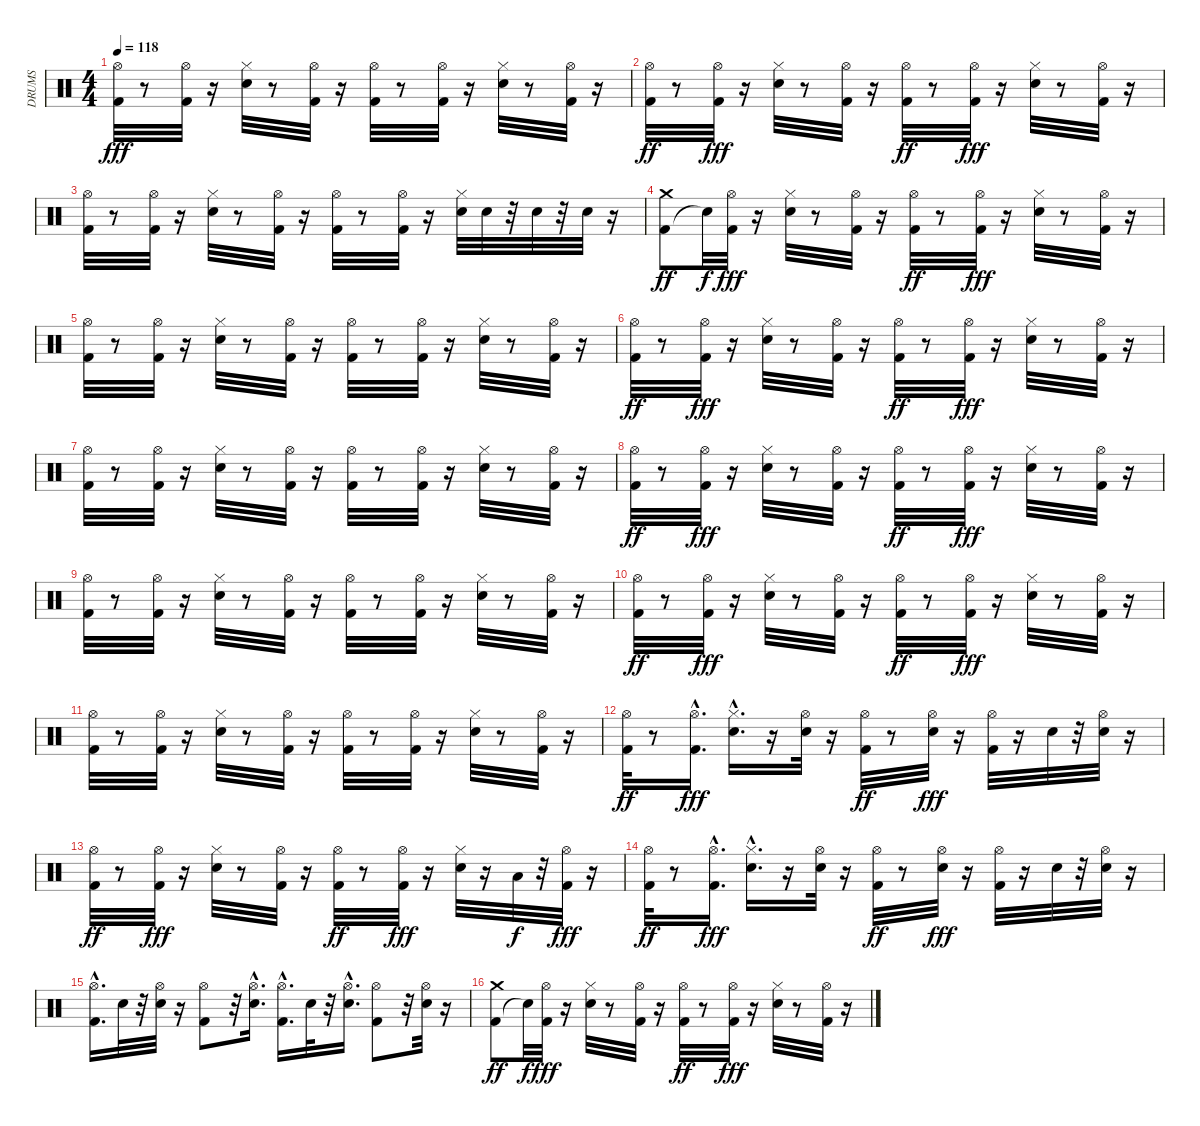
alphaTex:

\track ("DRUMS" "DRUMS") {instrument percussion}
\staff {score}
\articulation defaults
\ts (4 4)
\tempo 118
\clef neutral
\ks c
("Hi-Hat (open)" "Kick (hit) 2").32{dy fff} r.8 ("Hi-Hat (open)" "Kick (hit) 2").32 r.16 ("Snare (hit) 2" "Hi-Hat (closed)").32 r.8 ("Hi-Hat (open)" "Kick (hit) 2").32 r.16 ("Hi-Hat (open)" "Kick (hit) 2").32 r.8 ("Hi-Hat (open)" "Kick (hit) 2").32 r.16 ("Hi-Hat (closed)" "Snare (hit) 2").32 r.8 ("Hi-Hat (open)" "Kick (hit) 2").32 r.16 |
("Kick (hit) 2" "Hi-Hat (open)").32{dy ff} r.8 ("Hi-Hat (open)" "Kick (hit) 2").32{dy fff} r.16 ("Hi-Hat (closed)" "Snare (hit) 2").32 r.8 ("Kick (hit) 2" "Hi-Hat (open)").32 r.16 ("Kick (hit) 2" "Hi-Hat (open)").32{dy ff} r.8 ("Hi-Hat (open)" "Kick (hit) 2").32{dy fff} r.16 ("Snare (hit) 2" "Hi-Hat (closed)").32 r.8 ("Hi-Hat (open)" "Kick (hit) 2").32 r.16 |
("Hi-Hat (open)" "Kick (hit) 2").32 r.8 ("Hi-Hat (open)" "Kick (hit) 2").32 r.16 ("Hi-Hat (closed)" "Snare (hit) 2").32 r.8 ("Hi-Hat (open)" "Kick (hit) 2").32 r.16 ("Hi-Hat (open)" "Kick (hit) 2").32 r.8 ("Hi-Hat (open)" "Kick (hit) 2").32 r.16 ("Hi-Hat (closed)" "Snare (hit) 2").32 "Snare (hit) 2".32 r.32 "Snare (hit) 2".32 r.32 "Snare (hit) 2".32 r.16 |
("Kick (hit) 2" "Crash medium (hit)").8{dy ff} "Snare (hit)"{t}.32{dy f} ("Hi-Hat (open)" "Kick (hit) 2").32{dy fff} r.16 ("Hi-Hat (closed)" "Snare (hit) 2").32 r.8 ("Kick (hit) 2" "Hi-Hat (open)").32 r.16 ("Kick (hit) 2" "Hi-Hat (open)").32{dy ff} r.8 ("Hi-Hat (open)" "Kick (hit) 2").32{dy fff} r.16 ("Snare (hit) 2" "Hi-Hat (closed)").32 r.8 ("Hi-Hat (open)" "Kick (hit) 2").32 r.16 |
("Hi-Hat (open)" "Kick (hit) 2").32 r.8 ("Hi-Hat (open)" "Kick (hit) 2").32 r.16 ("Hi-Hat (closed)" "Snare (hit) 2").32 r.8 ("Hi-Hat (open)" "Kick (hit) 2").32 r.16 ("Hi-Hat (open)" "Kick (hit) 2").32 r.8 ("Hi-Hat (open)" "Kick (hit) 2").32 r.16 ("Hi-Hat (closed)" "Snare (hit) 2").32 r.8 ("Hi-Hat (open)" "Kick (hit) 2").32 r.16 |
("Kick (hit) 2" "Hi-Hat (open)").32{dy ff} r.8 ("Hi-Hat (open)" "Kick (hit) 2").32{dy fff} r.16 ("Hi-Hat (closed)" "Snare (hit) 2").32 r.8 ("Kick (hit) 2" "Hi-Hat (open)").32 r.16 ("Kick (hit) 2" "Hi-Hat (open)").32{dy ff} r.8 ("Hi-Hat (open)" "Kick (hit) 2").32{dy fff} r.16 ("Hi-Hat (closed)" "Snare (hit) 2").32 r.8 ("Hi-Hat (open)" "Kick (hit) 2").32 r.16 |
("Hi-Hat (open)" "Kick (hit) 2").32 r.8 ("Hi-Hat (open)" "Kick (hit) 2").32 r.16 ("Snare (hit) 2" "Hi-Hat (closed)").32 r.8 ("Hi-Hat (open)" "Kick (hit) 2").32 r.16 ("Hi-Hat (open)" "Kick (hit) 2").32 r.8 ("Hi-Hat (open)" "Kick (hit) 2").32 r.16 ("Hi-Hat (closed)" "Snare (hit) 2").32 r.8 ("Hi-Hat (open)" "Kick (hit) 2").32 r.16 |
("Kick (hit) 2" "Hi-Hat (open)").32{dy ff} r.8 ("Hi-Hat (open)" "Kick (hit) 2").32{dy fff} r.16 ("Hi-Hat (closed)" "Snare (hit) 2").32 r.8 ("Kick (hit) 2" "Hi-Hat (open)").32 r.16 ("Kick (hit) 2" "Hi-Hat (open)").32{dy ff} r.8 ("Hi-Hat (open)" "Kick (hit) 2").32{dy fff} r.16 ("Snare (hit) 2" "Hi-Hat (closed)").32 r.8 ("Hi-Hat (open)" "Kick (hit) 2").32 r.16 |
("Hi-Hat (open)" "Kick (hit) 2").32 r.8 ("Hi-Hat (open)" "Kick (hit) 2").32 r.16 ("Hi-Hat (closed)" "Snare (hit) 2").32 r.8 ("Hi-Hat (open)" "Kick (hit) 2").32 r.16 ("Hi-Hat (open)" "Kick (hit) 2").32 r.8 ("Hi-Hat (open)" "Kick (hit) 2").32 r.16 ("Hi-Hat (closed)" "Snare (hit) 2").32 r.8 ("Hi-Hat (open)" "Kick (hit) 2").32 r.16 |
("Kick (hit) 2" "Hi-Hat (open)").32{dy ff} r.8 ("Hi-Hat (open)" "Kick (hit) 2").32{dy fff} r.16 ("Hi-Hat (closed)" "Snare (hit) 2").32 r.8 ("Kick (hit) 2" "Hi-Hat (open)").32 r.16 ("Kick (hit) 2" "Hi-Hat (open)").32{dy ff} r.8 ("Hi-Hat (open)" "Kick (hit) 2").32{dy fff} r.16 ("Hi-Hat (closed)" "Snare (hit) 2").32 r.8 ("Hi-Hat (open)" "Kick (hit) 2").32 r.16 |
("Hi-Hat (open)" "Kick (hit) 2").32 r.8 ("Hi-Hat (open)" "Kick (hit) 2").32 r.16 ("Snare (hit) 2" "Hi-Hat (closed)").32 r.8 ("Hi-Hat (open)" "Kick (hit) 2").32 r.16 ("Hi-Hat (open)" "Kick (hit) 2").32 r.8 ("Hi-Hat (open)" "Kick (hit) 2").32 r.16 ("Hi-Hat (closed)" "Snare (hit) 2").32 r.8 ("Hi-Hat (open)" "Kick (hit) 2").32 r.16 |
("Kick (hit) 2" "Hi-Hat (open)").32{dy ff} r.8 ("Kick (hit) 2" "Hi-Hat (open)"{hac}).16{d dy fff} ("Snare (hit) 2" "Hi-Hat (closed)"{hac}).16{d} r.16 ("Hi-Hat (open)" "Snare (hit) 2").32 r.16 ("Kick (hit) 2" "Hi-Hat (open)").32{dy ff} r.8 ("Hi-Hat (open)" "Snare (hit) 2").32{dy fff} r.16 ("Kick (hit) 2" "Hi-Hat (open)").32 r.16 "Snare (hit) 2".32 r.32 ("Hi-Hat (open)" "Snare (hit) 2").32 r.16 |
("Kick (hit) 2" "Hi-Hat (open)").32{dy ff} r.8 ("Kick (hit) 2" "Hi-Hat (open)").32{dy fff} r.16 ("Hi-Hat (closed)" "Snare (hit) 2").32 r.8 ("Kick (hit) 2" "Hi-Hat (open)").32 r.16 ("Kick (hit) 2" "Hi-Hat (open)").32{dy ff} r.8 ("Hi-Hat (open)" "Kick (hit) 2").32{dy fff} r.16 ("Hi-Hat (closed)" "Snare (hit) 2").32 r.16 "Low Tom (hit)".32{dy f} r.32 ("Hi-Hat (open)" "Kick (hit) 2").32{dy fff} r.16 |
("Kick (hit) 2" "Hi-Hat (open)").32{dy ff} r.8 ("Kick (hit) 2" "Hi-Hat (open)"{hac}).16{d dy fff} ("Snare (hit) 2" "Hi-Hat (closed)"{hac}).16{d} r.16 ("Hi-Hat (open)" "Snare (hit) 2").32 r.16 ("Kick (hit) 2" "Hi-Hat (open)").32{dy ff} r.8 ("Hi-Hat (open)" "Snare (hit) 2").32{dy fff} r.16 ("Kick (hit) 2" "Hi-Hat (open)").32 r.16 "Snare (hit) 2".32 r.32 ("Hi-Hat (open)" "Snare (hit) 2").32 r.16 |
("Hi-Hat (open)" "Kick (hit) 2"{hac}).16{d} "Snare (hit) 2".32 r.32 ("Hi-Hat (open)" "Snare (hit) 2").32 r.16 ("Hi-Hat (open)" "Kick (hit) 2").8 r.32 ("Hi-Hat (open)" "Snare (hit) 2"{hac}).16{d} ("Hi-Hat (open)" "Kick (hit) 2"{hac}).16{d} "Snare (hit) 2".32 r.32 ("Snare (hit) 2"{hac} "Hi-Hat (open)").16{d} ("Hi-Hat (open)" "Kick (hit) 2").8 r.32 ("Hi-Hat (open)" "Snare (hit) 2").32 r.16 |
("Kick (hit) 2" "Crash medium (hit)").8{dy ff} "Snare (hit)"{t}.32{dy f} ("Kick (hit) 2" "Hi-Hat (open)").32{dy fff} r.16 ("Hi-Hat (closed)" "Snare (hit) 2").32 r.8 ("Kick (hit) 2" "Hi-Hat (open)").32 r.16 ("Kick (hit) 2" "Hi-Hat (open)").32{dy ff} r.8 ("Hi-Hat (open)" "Kick (hit) 2").32{dy fff} r.16 ("Hi-Hat (closed)" "Snare (hit) 2").32 r.8 ("Hi-Hat (open)" "Kick (hit) 2").32 r.16
